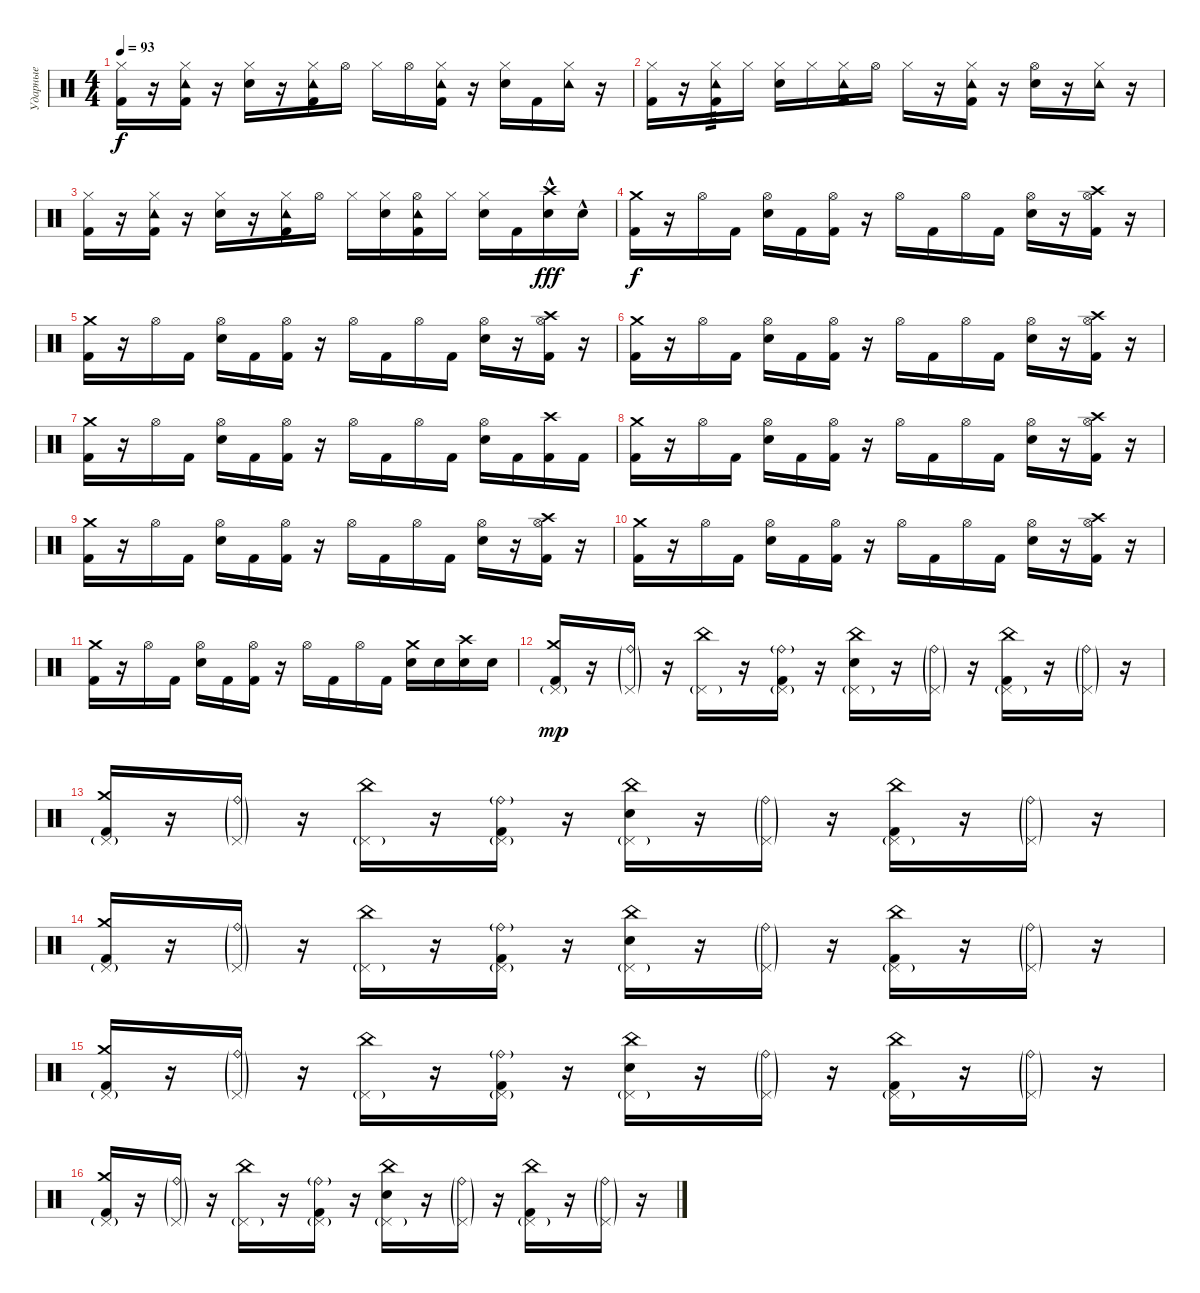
\track ("Ударные" "Ударные") {instrument percussion}
\staff {score}
\articulation defaults
\ts (4 4)
\tempo 93
\clef neutral
\ks c
("Hi-Hat (closed)" "Kick (hit) 2").16{dy f} r.16 ("Tambourine (hit)" "Hi-Hat (closed)" "Kick (hit) 2").16 r.16 ("Hi-Hat (closed)" "Electric Snare (hit)").16 r.16 ("Tambourine (hit)" "Hi-Hat (closed)" "Kick (hit) 2").16 "Hi-Hat (open)".16 "Hi-Hat (closed)".16 "Hi-Hat (open)".16 ("Tambourine (hit)" "Hi-Hat (closed)" "Kick (hit) 2").16 r.16 ("Hi-Hat (closed)" "Electric Snare (hit)").16 "Kick (hit) 2".16 ("Tambourine (hit)" "Hi-Hat (closed)").16 r.16 |
("Hi-Hat (closed)" "Kick (hit) 2").16 r.16 ("Tambourine (hit)" "Hi-Hat (closed)" "Kick (hit) 2").16{tp 3} "Hi-Hat (closed)".16 ("Hi-Hat (closed)" "Electric Snare (hit)").16 "Hi-Hat (closed)".16 ("Tambourine (hit)" "Hi-Hat (closed)" "Kick (hit) 2").16 "Hi-Hat (open)".16 "Hi-Hat (closed)".16 r.16 ("Tambourine (hit)" "Hi-Hat (closed)" "Kick (hit) 2").16 r.16 ("Hi-Hat (open)" "Electric Snare (hit)").16 r.16 ("Tambourine (hit)" "Hi-Hat (closed)").16 r.16 |
("Hi-Hat (closed)" "Kick (hit) 2").16 r.16 ("Tambourine (hit)" "Hi-Hat (closed)" "Kick (hit) 2").16 r.16 ("Hi-Hat (closed)" "Electric Snare (hit)").16 r.16 ("Tambourine (hit)" "Hi-Hat (closed)" "Kick (hit) 2").16 "Hi-Hat (open)".16 "Hi-Hat (closed)".16 ("Hi-Hat (closed)" "Electric Snare (hit)").16 ("Tambourine (hit)" "Hi-Hat (open)" "Kick (hit) 2").16 "Hi-Hat (closed)".16 ("Hi-Hat (closed)" "Electric Snare (hit)").16 "Kick (hit) 2".16 ("Crash high (hit)"{hac} "Electric Snare (hit)"{hac}).16{dy fff} "Electric Snare (hit)"{hac}.16 |
("Crash medium (hit)" "Kick (hit) 2").16{dy f} r.16 "Hi-Hat (open)".16 "Kick (hit) 2".16 ("Hi-Hat (open)" "Electric Snare (hit)").16 "Kick (hit) 2".16 ("Hi-Hat (open)" "Kick (hit) 2").16 r.16 "Hi-Hat (open)".16 "Kick (hit) 2".16 "Hi-Hat (open)".16 "Kick (hit) 2".16 ("Hi-Hat (open)" "Electric Snare (hit)").16 r.16 ("Crash high (hit)" "Hi-Hat (open)" "Kick (hit) 2").16 r.16 |
("Crash medium (hit)" "Kick (hit) 2").16 r.16 "Hi-Hat (open)".16 "Kick (hit) 2".16 ("Hi-Hat (open)" "Electric Snare (hit)").16 "Kick (hit) 2".16 ("Hi-Hat (open)" "Kick (hit) 2").16 r.16 "Hi-Hat (open)".16 "Kick (hit) 2".16 "Hi-Hat (open)".16 "Kick (hit) 2".16 ("Hi-Hat (open)" "Electric Snare (hit)").16 r.16 ("Crash high (hit)" "Hi-Hat (open)" "Kick (hit) 2").16 r.16 |
("Crash medium (hit)" "Kick (hit) 2").16 r.16 "Hi-Hat (open)".16 "Kick (hit) 2".16 ("Hi-Hat (open)" "Electric Snare (hit)").16 "Kick (hit) 2".16 ("Hi-Hat (open)" "Kick (hit) 2").16 r.16 "Hi-Hat (open)".16 "Kick (hit) 2".16 "Hi-Hat (open)".16 "Kick (hit) 2".16 ("Hi-Hat (open)" "Electric Snare (hit)").16 r.16 ("Crash high (hit)" "Hi-Hat (open)" "Kick (hit) 2").16 r.16 |
("Crash medium (hit)" "Kick (hit) 2").16 r.16 "Hi-Hat (open)".16 "Kick (hit) 2".16 ("Hi-Hat (open)" "Electric Snare (hit)").16 "Kick (hit) 2".16 ("Hi-Hat (open)" "Kick (hit) 2").16 r.16 "Hi-Hat (open)".16 "Kick (hit) 2".16 "Hi-Hat (open)".16 "Kick (hit) 2".16 ("Hi-Hat (open)" "Electric Snare (hit)").16 "Kick (hit) 2".16 ("Crash high (hit)" "Kick (hit) 2").16 "Kick (hit) 2".16 |
("Crash medium (hit)" "Kick (hit) 2").16 r.16 "Hi-Hat (open)".16 "Kick (hit) 2".16 ("Hi-Hat (open)" "Electric Snare (hit)").16 "Kick (hit) 2".16 ("Hi-Hat (open)" "Kick (hit) 2").16 r.16 "Hi-Hat (open)".16 "Kick (hit) 2".16 "Hi-Hat (open)".16 "Kick (hit) 2".16 ("Hi-Hat (open)" "Electric Snare (hit)").16 r.16 ("Crash high (hit)" "Hi-Hat (open)" "Kick (hit) 2").16 r.16 |
("Crash medium (hit)" "Kick (hit) 2").16 r.16 "Hi-Hat (open)".16 "Kick (hit) 2".16 ("Hi-Hat (open)" "Electric Snare (hit)").16 "Kick (hit) 2".16 ("Hi-Hat (open)" "Kick (hit) 2").16 r.16 "Hi-Hat (open)".16 "Kick (hit) 2".16 "Hi-Hat (open)".16 "Kick (hit) 2".16 ("Hi-Hat (open)" "Electric Snare (hit)").16 r.16 ("Crash high (hit)" "Hi-Hat (open)" "Kick (hit) 2").16 r.16 |
("Crash medium (hit)" "Kick (hit) 2").16 r.16 "Hi-Hat (open)".16 "Kick (hit) 2".16 ("Hi-Hat (open)" "Electric Snare (hit)").16 "Kick (hit) 2".16 ("Hi-Hat (open)" "Kick (hit) 2").16 r.16 "Hi-Hat (open)".16 "Kick (hit) 2".16 "Hi-Hat (open)".16 "Kick (hit) 2".16 ("Hi-Hat (open)" "Electric Snare (hit)").16 r.16 ("Crash high (hit)" "Hi-Hat (open)" "Kick (hit) 2").16 r.16 |
("Crash medium (hit)" "Kick (hit) 2").16 r.16 "Hi-Hat (open)".16 "Kick (hit) 2".16 ("Hi-Hat (open)" "Electric Snare (hit)").16 "Kick (hit) 2".16 ("Hi-Hat (open)" "Kick (hit) 2").16 r.16 "Hi-Hat (open)".16 "Kick (hit) 2".16 "Hi-Hat (open)".16 "Kick (hit) 2".16 ("Crash medium (hit)" "Electric Snare (hit)").16 "Electric Snare (hit)".16 ("Crash high (hit)" "Electric Snare (hit)").16 "Electric Snare (hit)".16 |
("Crash medium (hit)" "Pedal Hi-Hat (hit)"{g} "Kick (hit) 2").16{dy mp} r.16 ("Ride (bell)"{g} "Pedal Hi-Hat (hit)"{g}).16 r.16 ("China (hit)" "Pedal Hi-Hat (hit)"{g}).16 r.16 ("Ride (bell)"{g} "Pedal Hi-Hat (hit)"{g} "Kick (hit) 2").16 r.16 ("China (hit)" "Pedal Hi-Hat (hit)"{g} "Electric Snare (hit)").16 r.16 ("Ride (bell)"{g} "Pedal Hi-Hat (hit)"{g}).16 r.16 ("China (hit)" "Pedal Hi-Hat (hit)"{g} "Kick (hit) 2").16 r.16 ("Ride (bell)"{g} "Pedal Hi-Hat (hit)"{g}).16 r.16 |
("Crash medium (hit)" "Pedal Hi-Hat (hit)"{g} "Kick (hit) 2").16 r.16 ("Ride (bell)"{g} "Pedal Hi-Hat (hit)"{g}).16 r.16 ("China (hit)" "Pedal Hi-Hat (hit)"{g}).16 r.16 ("Ride (bell)"{g} "Pedal Hi-Hat (hit)"{g} "Kick (hit) 2").16 r.16 ("China (hit)" "Pedal Hi-Hat (hit)"{g} "Electric Snare (hit)").16 r.16 ("Ride (bell)"{g} "Pedal Hi-Hat (hit)"{g}).16 r.16 ("China (hit)" "Pedal Hi-Hat (hit)"{g} "Kick (hit) 2").16 r.16 ("Ride (bell)"{g} "Pedal Hi-Hat (hit)"{g}).16 r.16 |
("Crash medium (hit)" "Pedal Hi-Hat (hit)"{g} "Kick (hit) 2").16 r.16 ("Ride (bell)"{g} "Pedal Hi-Hat (hit)"{g}).16 r.16 ("China (hit)" "Pedal Hi-Hat (hit)"{g}).16 r.16 ("Ride (bell)"{g} "Pedal Hi-Hat (hit)"{g} "Kick (hit) 2").16 r.16 ("China (hit)" "Pedal Hi-Hat (hit)"{g} "Electric Snare (hit)").16 r.16 ("Ride (bell)"{g} "Pedal Hi-Hat (hit)"{g}).16 r.16 ("China (hit)" "Pedal Hi-Hat (hit)"{g} "Kick (hit) 2").16 r.16 ("Ride (bell)"{g} "Pedal Hi-Hat (hit)"{g}).16 r.16 |
("Crash medium (hit)" "Pedal Hi-Hat (hit)"{g} "Kick (hit) 2").16 r.16 ("Ride (bell)"{g} "Pedal Hi-Hat (hit)"{g}).16 r.16 ("China (hit)" "Pedal Hi-Hat (hit)"{g}).16 r.16 ("Ride (bell)"{g} "Pedal Hi-Hat (hit)"{g} "Kick (hit) 2").16 r.16 ("China (hit)" "Pedal Hi-Hat (hit)"{g} "Electric Snare (hit)").16 r.16 ("Ride (bell)"{g} "Pedal Hi-Hat (hit)"{g}).16 r.16 ("China (hit)" "Pedal Hi-Hat (hit)"{g} "Kick (hit) 2").16 r.16 ("Ride (bell)"{g} "Pedal Hi-Hat (hit)"{g}).16 r.16 |
("Crash medium (hit)" "Pedal Hi-Hat (hit)"{g} "Kick (hit) 2").16 r.16 ("Ride (bell)"{g} "Pedal Hi-Hat (hit)"{g}).16 r.16 ("China (hit)" "Pedal Hi-Hat (hit)"{g}).16 r.16 ("Ride (bell)"{g} "Pedal Hi-Hat (hit)"{g} "Kick (hit) 2").16 r.16 ("China (hit)" "Pedal Hi-Hat (hit)"{g} "Electric Snare (hit)").16 r.16 ("Ride (bell)"{g} "Pedal Hi-Hat (hit)"{g}).16 r.16 ("China (hit)" "Pedal Hi-Hat (hit)"{g} "Kick (hit) 2").16 r.16 ("Ride (bell)"{g} "Pedal Hi-Hat (hit)"{g}).16 r.16
